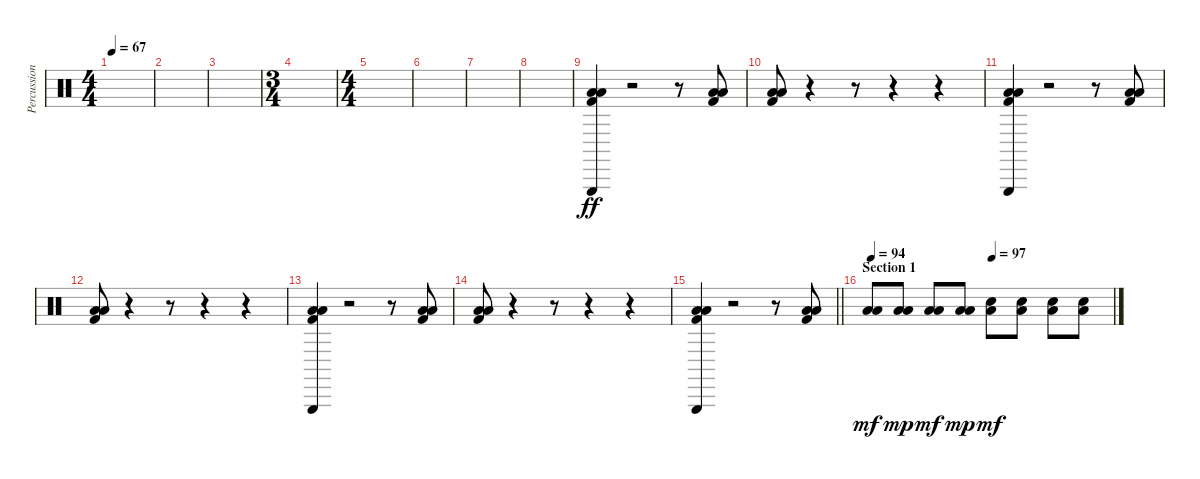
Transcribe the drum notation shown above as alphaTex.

\track ("Percussion" "Percussion") {instrument percussion}
\staff {score}
\articulation defaults
\ts (4 4)
\tempo 67
\clef neutral
\ks c
|
|
|
\ts (3 4)
|
\ts (4 4)
|
|
|
|
("Low Tom (hit)" "Low Floor Tom (hit)" "Kick (hit) 2" "Triangle (hit)").4{dy ff} r.2 r.8 ("Low Tom (hit)" "Low Floor Tom (hit)" "Kick (hit) 2").8 |
("Low Tom (hit)" "Low Floor Tom (hit)" "Kick (hit) 2").8 r.4 r.8 r.4 r.4 |
("Low Tom (hit)" "Low Floor Tom (hit)" "Kick (hit) 2" "Triangle (hit)").4 r.2 r.8 ("Low Tom (hit)" "Low Floor Tom (hit)" "Kick (hit) 2").8 |
("Low Tom (hit)" "Low Floor Tom (hit)" "Kick (hit) 2").8 r.4 r.8 r.4 r.4 |
("Low Tom (hit)" "Low Floor Tom (hit)" "Kick (hit) 2" "Triangle (hit)").4 r.2 r.8 ("Low Tom (hit)" "Low Floor Tom (hit)" "Kick (hit) 2").8 |
("Low Tom (hit)" "Low Floor Tom (hit)" "Kick (hit) 2").8 r.4 r.8 r.4 r.4 |
\barLineRight lightlight
("Low Tom (hit)" "Low Floor Tom (hit)" "Kick (hit) 2" "Triangle (hit)").4 r.2 r.8 ("Low Tom (hit)" "Low Floor Tom (hit)" "Kick (hit) 2").8 |
\section ("" "Section 1")
\tempo 104
\tempo 94
\tempo (97 0.5)
("Low Tom (hit)" "Low Floor Tom (hit)").8{dy mf} ("Low Tom (hit)" "Low Floor Tom (hit)").8{dy mp} ("Low Tom (hit)" "Low Floor Tom (hit)").8{dy mf} ("Low Tom (hit)" "Low Floor Tom (hit)").8{dy mp} ("Snare (hit) 2" "Low Floor Tom (hit)").8{dy mf} ("Snare (hit) 2" "Low Floor Tom (hit)").8 ("Snare (hit) 2" "Low Floor Tom (hit)").8 ("Snare (hit) 2" "Low Floor Tom (hit)").8
